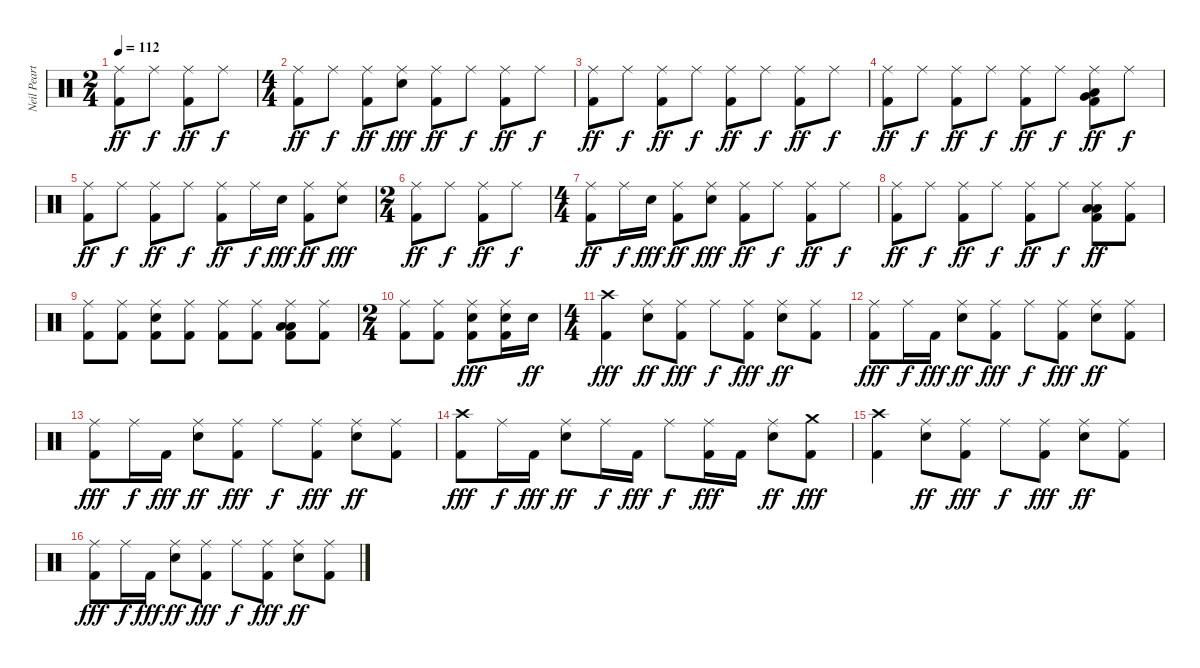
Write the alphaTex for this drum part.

\track ("Neil Peart" "Neil Peart") {instrument percussion}
\staff {score}
\articulation defaults
\ts (2 4)
\tempo 112
\clef neutral
\ks c
("Ride (middle)" "Kick (hit) 2").8{dy ff} "Ride (middle)".8{dy f} ("Ride (middle)" "Kick (hit) 2").8{dy ff} "Ride (middle)".8{dy f} |
\ts (4 4)
("Ride (middle)" "Kick (hit) 2").8{dy ff} "Ride (middle)".8{dy f} ("Ride (middle)" "Kick (hit) 2").8{dy ff} ("Ride (middle)" "Snare (hit) 2").8{dy fff} ("Ride (middle)" "Kick (hit) 2").8{dy ff} "Ride (middle)".8{dy f} ("Ride (middle)" "Kick (hit) 2").8{dy ff} "Ride (middle)".8{dy f} |
("Kick (hit) 2" "Ride (middle)").8{dy ff} "Ride (middle)".8{dy f} ("Kick (hit) 2" "Ride (middle)").8{dy ff} "Ride (middle)".8{dy f} ("Kick (hit) 2" "Ride (middle)").8{dy ff} "Ride (middle)".8{dy f} ("Kick (hit) 2" "Ride (middle)").8{dy ff} "Ride (middle)".8{dy f} |
("Kick (hit) 2" "Ride (middle)").8{dy ff} "Ride (middle)".8{dy f} ("Kick (hit) 2" "Ride (middle)").8{dy ff} "Ride (middle)".8{dy f} ("Kick (hit) 2" "Ride (middle)").8{dy ff} "Ride (middle)".8{dy f} ("Very Low Tom (hit)" "Ride (middle)" "Low Tom (hit)" "Kick (hit) 2").8{dy ff} "Ride (middle)".8{dy f} |
("Kick (hit) 2" "Ride (middle)").8{dy ff} "Ride (middle)".8{dy f} ("Kick (hit) 2" "Ride (middle)").8{dy ff} "Ride (middle)".8{dy f} ("Kick (hit) 2" "Ride (middle)").8{dy ff} "Ride (middle)".16{dy f} "Snare (hit) 2".16{dy fff} ("Kick (hit) 2" "Ride (middle)").8{dy ff} ("Snare (hit) 2" "Ride (middle)").8{dy fff} |
\ts (2 4)
("Ride (middle)" "Kick (hit) 2").8{dy ff} "Ride (middle)".8{dy f} ("Ride (middle)" "Kick (hit) 2").8{dy ff} "Ride (middle)".8{dy f} |
\ts (4 4)
("Kick (hit) 2" "Ride (middle)").8{dy ff} "Ride (middle)".16{dy f} "Snare (hit) 2".16{dy fff} ("Kick (hit) 2" "Ride (middle)").8{dy ff} ("Snare (hit) 2" "Ride (middle)").8{dy fff} ("Kick (hit) 2" "Ride (middle)").8{dy ff} "Ride (middle)".8{dy f} ("Kick (hit) 2" "Ride (middle)").8{dy ff} "Ride (middle)".8{dy f} |
("Kick (hit) 2" "Ride (middle)").8{dy ff} "Ride (middle)".8{dy f} ("Kick (hit) 2" "Ride (middle)").8{dy ff} "Ride (middle)".8{dy f} ("Kick (hit) 2" "Ride (middle)").8{dy ff} "Ride (middle)".8{dy f} ("Low Floor Tom (hit)" "Low Tom (hit)" "Kick (hit) 2" "Ride (middle)").8{dy ff} ("Kick (hit) 2" "Ride (middle)").8 |
("Kick (hit) 2" "Ride (middle)").8 ("Kick (hit) 2" "Ride (middle)").8 ("Snare (hit) 2" "Kick (hit) 2" "Ride (middle)").8 ("Kick (hit) 2" "Ride (middle)").8 ("Kick (hit) 2" "Ride (middle)").8 ("Kick (hit) 2" "Ride (middle)").8 ("Low Floor Tom (hit)" "Low Tom (hit)" "Kick (hit) 2" "Ride (middle)").8 ("Kick (hit) 2" "Ride (middle)").8 |
\ts (2 4)
("Ride (middle)" "Kick (hit) 2").8 ("Kick (hit) 2" "Ride (middle)").8 ("Ride (middle)" "Kick (hit) 2" "Snare (hit) 2").8{dy fff} ("Kick (hit) 2" "Snare (hit) 2" "Ride (middle)").16 "Snare (hit) 2".16{dy ff} |
\ts (4 4)
("Crash high (hit)" "Kick (hit) 2").4{dy fff} ("Ride (middle)" "Snare (hit) 2").8{dy ff} ("Ride (middle)" "Kick (hit) 2").8{dy fff} "Ride (middle)".8{dy f} ("Ride (middle)" "Kick (hit) 2").8{dy fff} ("Ride (middle)" "Snare (hit) 2").8{dy ff} ("Ride (middle)" "Kick (hit) 2").8 |
("Ride (middle)" "Kick (hit) 2").8{dy fff} "Ride (middle)".16{dy f} "Kick (hit) 2".16{dy fff} ("Ride (middle)" "Snare (hit) 2").8{dy ff} ("Ride (middle)" "Kick (hit) 2").8{dy fff} "Ride (middle)".8{dy f} ("Ride (middle)" "Kick (hit) 2").8{dy fff} ("Ride (middle)" "Snare (hit) 2").8{dy ff} ("Ride (middle)" "Kick (hit) 2").8 |
("Ride (middle)" "Kick (hit) 2").8{dy fff} "Ride (middle)".16{dy f} "Kick (hit) 2".16{dy fff} ("Ride (middle)" "Snare (hit) 2").8{dy ff} ("Ride (middle)" "Kick (hit) 2").8{dy fff} "Ride (middle)".8{dy f} ("Ride (middle)" "Kick (hit) 2").8{dy fff} ("Ride (middle)" "Snare (hit) 2").8{dy ff} ("Ride (middle)" "Kick (hit) 2").8 |
("Crash high (hit)" "Kick (hit) 2").8{dy fff} "Ride (middle)".16{dy f} "Kick (hit) 2".16{dy fff} ("Ride (middle)" "Snare (hit) 2").8{dy ff} "Ride (middle)".16{dy f} "Kick (hit) 2".16{dy fff} "Ride (middle)".8{dy f} ("Ride (middle)" "Kick (hit) 2").16{dy fff} "Kick (hit) 2".16 ("Ride (middle)" "Snare (hit) 2").8{dy ff} ("Crash medium (hit)" "Kick (hit) 2").8{dy fff} |
("Crash high (hit)" "Kick (hit) 2").4 ("Ride (middle)" "Snare (hit) 2").8{dy ff} ("Ride (middle)" "Kick (hit) 2").8{dy fff} "Ride (middle)".8{dy f} ("Ride (middle)" "Kick (hit) 2").8{dy fff} ("Ride (middle)" "Snare (hit) 2").8{dy ff} ("Ride (middle)" "Kick (hit) 2").8 |
("Ride (middle)" "Kick (hit) 2").8{dy fff} "Ride (middle)".16{dy f} "Kick (hit) 2".16{dy fff} ("Ride (middle)" "Snare (hit) 2").8{dy ff} ("Ride (middle)" "Kick (hit) 2").8{dy fff} "Ride (middle)".8{dy f} ("Ride (middle)" "Kick (hit) 2").8{dy fff} ("Ride (middle)" "Snare (hit) 2").8{dy ff} ("Ride (middle)" "Kick (hit) 2").8
